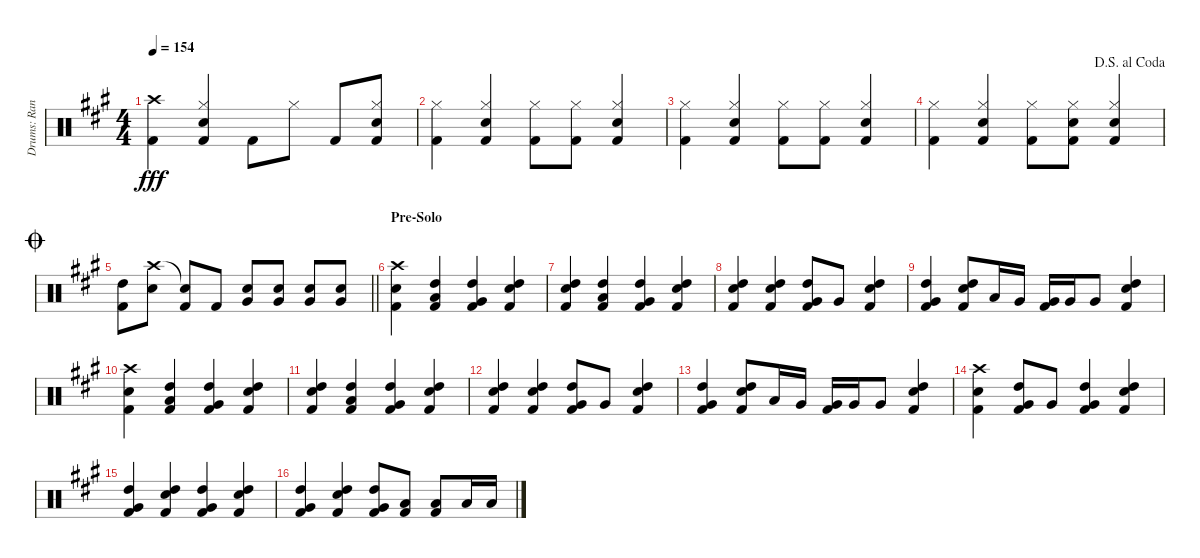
\track ("Drums: Randy" "Drums: Ran") {instrument percussion}
\staff {score}
\articulation defaults
\ts (4 4)
\tempo 154
\clef neutral
\ks a
("Crash high (hit)" "Kick (hit) 2").4{dy fff} ("Hi-Hat (closed)" "Snare (hit) 2" "Kick (hit) 2").4 "Kick (hit) 2".8 "Hi-Hat (closed)".8 "Kick (hit) 2".8 ("Hi-Hat (closed)" "Snare (hit) 2" "Kick (hit) 2").8 |
("Hi-Hat (closed)" "Kick (hit) 2").4 ("Hi-Hat (closed)" "Snare (hit) 2" "Kick (hit) 2").4 ("Hi-Hat (closed)" "Kick (hit) 2").8 ("Hi-Hat (closed)" "Kick (hit) 2").8 ("Hi-Hat (closed)" "Snare (hit) 2" "Kick (hit) 2").4 |
("Hi-Hat (closed)" "Kick (hit) 2").4 ("Hi-Hat (closed)" "Snare (hit) 2" "Kick (hit) 2").4 ("Hi-Hat (closed)" "Kick (hit) 2").8 ("Hi-Hat (closed)" "Kick (hit) 2").8 ("Hi-Hat (closed)" "Snare (hit) 2" "Kick (hit) 2").4 |
\jump dalsegnoalcoda
("Hi-Hat (closed)" "Kick (hit) 2").4 ("Hi-Hat (closed)" "Snare (hit) 2" "Kick (hit) 2").4 ("Hi-Hat (closed)" "Kick (hit) 2").8 ("Hi-Hat (closed)" "Snare (hit) 2" "Kick (hit) 2").8 ("Hi-Hat (closed)" "Snare (hit) 2" "Kick (hit) 2").4 |
\jump coda
\barLineRight lightlight
("High Tom (hit)" "Kick (hit) 2").8 ("Crash high (hit)" "Snare (hit) 2").8 ("Snare (hit)"{t} "Kick (hit) 2").8 "Kick (hit) 2".8 ("Snare (hit) 2" "Very Low Tom (hit)").8 ("Snare (hit) 2" "Very Low Tom (hit)").8 ("Snare (hit) 2" "Very Low Tom (hit)").8 ("Snare (hit) 2" "Very Low Tom (hit)").8 |
\section ("" "Pre-Solo")
("Crash high (hit)" "Snare (hit) 2" "Kick (hit) 2").4 ("Low Tom (hit)" "High Tom (hit)" "Kick (hit) 2").4 ("Very Low Tom (hit)" "High Tom (hit)" "Kick (hit) 2").4 ("Snare (hit) 2" "High Tom (hit)" "Kick (hit) 2").4 |
("Snare (hit) 2" "High Tom (hit)" "Kick (hit) 2").4 ("Low Tom (hit)" "High Tom (hit)" "Kick (hit) 2").4 ("Very Low Tom (hit)" "High Tom (hit)" "Kick (hit) 2").4 ("Snare (hit) 2" "High Tom (hit)" "Kick (hit) 2").4 |
("Snare (hit) 2" "High Tom (hit)" "Kick (hit) 2").4 ("Snare (hit) 2" "High Tom (hit)" "Kick (hit) 2").4 ("Very Low Tom (hit)" "High Tom (hit)" "Kick (hit) 2").8 "Very Low Tom (hit)".8 ("Snare (hit) 2" "High Tom (hit)" "Kick (hit) 2").4 |
("Very Low Tom (hit)" "High Tom (hit)" "Kick (hit) 2").4 ("Snare (hit) 2" "High Tom (hit)" "Kick (hit) 2").8 "Low Tom (hit)".16 "Very Low Tom (hit)".16 ("Very Low Tom (hit)" "Kick (hit) 2").16 "Very Low Tom (hit)".16 "Very Low Tom (hit)".8 ("Snare (hit) 2" "High Tom (hit)" "Kick (hit) 2").4 |
("Crash high (hit)" "Snare (hit) 2" "Kick (hit) 2").4 ("Low Tom (hit)" "High Tom (hit)" "Kick (hit) 2").4 ("Very Low Tom (hit)" "High Tom (hit)" "Kick (hit) 2").4 ("Snare (hit) 2" "High Tom (hit)" "Kick (hit) 2").4 |
("Snare (hit) 2" "High Tom (hit)" "Kick (hit) 2").4 ("Low Tom (hit)" "High Tom (hit)" "Kick (hit) 2").4 ("Very Low Tom (hit)" "High Tom (hit)" "Kick (hit) 2").4 ("Snare (hit) 2" "High Tom (hit)" "Kick (hit) 2").4 |
("Snare (hit) 2" "High Tom (hit)" "Kick (hit) 2").4 ("Snare (hit) 2" "High Tom (hit)" "Kick (hit) 2").4 ("Very Low Tom (hit)" "High Tom (hit)" "Kick (hit) 2").8 "Very Low Tom (hit)".8 ("Snare (hit) 2" "High Tom (hit)" "Kick (hit) 2").4 |
("Very Low Tom (hit)" "High Tom (hit)" "Kick (hit) 2").4 ("Snare (hit) 2" "High Tom (hit)" "Kick (hit) 2").8 "Low Tom (hit)".16 "Very Low Tom (hit)".16 ("Very Low Tom (hit)" "Kick (hit) 2").16 "Very Low Tom (hit)".16 "Very Low Tom (hit)".8 ("Snare (hit) 2" "High Tom (hit)" "Kick (hit) 2").4 |
("Crash high (hit)" "Snare (hit) 2" "Kick (hit) 2").4 ("Very Low Tom (hit)" "High Tom (hit)" "Kick (hit) 2").8 "Very Low Tom (hit)".8 ("Very Low Tom (hit)" "High Tom (hit)" "Kick (hit) 2").4 ("Snare (hit) 2" "High Tom (hit)" "Kick (hit) 2").4 |
("Very Low Tom (hit)" "High Tom (hit)" "Kick (hit) 2").4 ("Snare (hit) 2" "High Tom (hit)" "Kick (hit) 2").4 ("Very Low Tom (hit)" "High Tom (hit)" "Kick (hit) 2").4 ("Snare (hit) 2" "High Tom (hit)" "Kick (hit) 2").4 |
("Very Low Tom (hit)" "High Tom (hit)" "Kick (hit) 2").4 ("Snare (hit) 2" "High Tom (hit)" "Kick (hit) 2").4 ("Very Low Tom (hit)" "High Tom (hit)" "Kick (hit) 2").8 ("Low Tom (hit)" "Kick (hit) 2").8 ("Low Tom (hit)" "Kick (hit) 2").8 "Low Tom (hit)".16 "Low Tom (hit)".16
